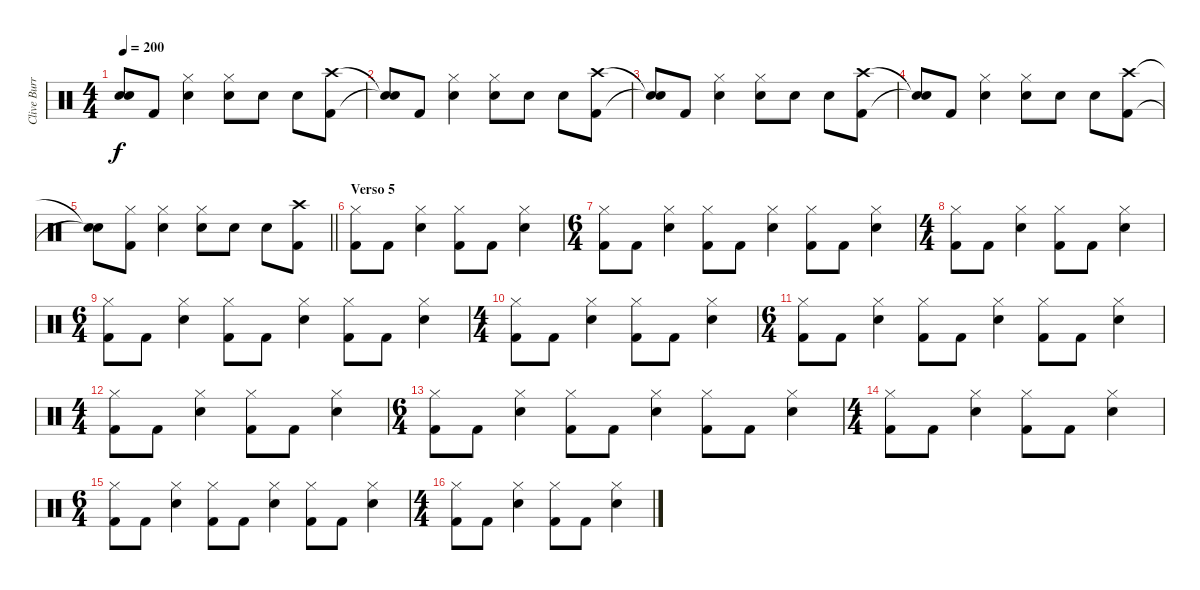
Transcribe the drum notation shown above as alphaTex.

\track ("Clive Burr" "Clive Burr") {instrument percussion}
\staff {score}
\articulation defaults
\ts (4 4)
\tempo 200
\clef neutral
\ks c
("Snare (hit)"{t} "Snare (hit)"{t}).8{dy f} "Kick (hit) 2".8 ("Hi-Hat (closed)" "Snare (hit) 2").4 ("Hi-Hat (closed)" "Snare (hit) 2").8 "Snare (hit) 2".8 "Snare (hit) 2".8 ("Crash high (hit)" "Kick (hit) 2").8 |
("Snare (hit)"{t} "Snare (hit)"{t}).8 "Kick (hit) 2".8 ("Hi-Hat (closed)" "Snare (hit) 2").4 ("Hi-Hat (closed)" "Snare (hit) 2").8 "Snare (hit) 2".8 "Snare (hit) 2".8 ("Crash high (hit)" "Kick (hit) 2").8 |
("Snare (hit)"{t} "Snare (hit)"{t}).8 "Kick (hit) 2".8 ("Hi-Hat (closed)" "Snare (hit) 2").4 ("Hi-Hat (closed)" "Snare (hit) 2").8 "Snare (hit) 2".8 "Snare (hit) 2".8 ("Crash high (hit)" "Kick (hit) 2").8 |
("Snare (hit)"{t} "Snare (hit)"{t}).8 "Kick (hit) 2".8 ("Hi-Hat (closed)" "Snare (hit) 2").4 ("Hi-Hat (closed)" "Snare (hit) 2").8 "Snare (hit) 2".8 "Snare (hit) 2".8 ("Crash high (hit)" "Kick (hit) 2").8 |
\barLineRight lightlight
("Snare (hit)"{t} "Snare (hit)"{t}).8 ("Hi-Hat (closed)" "Kick (hit) 2").8 ("Hi-Hat (closed)" "Snare (hit) 2").4 ("Hi-Hat (closed)" "Snare (hit) 2").8 "Snare (hit) 2".8 "Snare (hit) 2".8 ("Crash high (hit)" "Kick (hit) 2").8 |
\section ("" "Verso 5")
("Hi-Hat (closed)" "Kick (hit) 2").8 "Kick (hit) 2".8 ("Hi-Hat (closed)" "Snare (hit) 2").4 ("Hi-Hat (closed)" "Kick (hit) 2").8 "Kick (hit) 2".8 ("Hi-Hat (closed)" "Snare (hit) 2").4 |
\ts (6 4)
("Hi-Hat (closed)" "Kick (hit) 2").8 "Kick (hit) 2".8 ("Hi-Hat (closed)" "Snare (hit) 2").4 ("Hi-Hat (closed)" "Kick (hit) 2").8 "Kick (hit) 2".8 ("Hi-Hat (closed)" "Snare (hit) 2").4 ("Hi-Hat (closed)" "Kick (hit) 2").8 "Kick (hit) 2".8 ("Hi-Hat (closed)" "Snare (hit) 2").4 |
\ts (4 4)
("Hi-Hat (closed)" "Kick (hit) 2").8 "Kick (hit) 2".8 ("Hi-Hat (closed)" "Snare (hit) 2").4 ("Hi-Hat (closed)" "Kick (hit) 2").8 "Kick (hit) 2".8 ("Hi-Hat (closed)" "Snare (hit) 2").4 |
\ts (6 4)
("Hi-Hat (closed)" "Kick (hit) 2").8 "Kick (hit) 2".8 ("Hi-Hat (closed)" "Snare (hit) 2").4 ("Hi-Hat (closed)" "Kick (hit) 2").8 "Kick (hit) 2".8 ("Hi-Hat (closed)" "Snare (hit) 2").4 ("Hi-Hat (closed)" "Kick (hit) 2").8 "Kick (hit) 2".8 ("Hi-Hat (closed)" "Snare (hit) 2").4 |
\ts (4 4)
("Hi-Hat (closed)" "Kick (hit) 2").8 "Kick (hit) 2".8 ("Hi-Hat (closed)" "Snare (hit) 2").4 ("Hi-Hat (closed)" "Kick (hit) 2").8 "Kick (hit) 2".8 ("Hi-Hat (closed)" "Snare (hit) 2").4 |
\ts (6 4)
("Hi-Hat (closed)" "Kick (hit) 2").8 "Kick (hit) 2".8 ("Hi-Hat (closed)" "Snare (hit) 2").4 ("Hi-Hat (closed)" "Kick (hit) 2").8 "Kick (hit) 2".8 ("Hi-Hat (closed)" "Snare (hit) 2").4 ("Hi-Hat (closed)" "Kick (hit) 2").8 "Kick (hit) 2".8 ("Hi-Hat (closed)" "Snare (hit) 2").4 |
\ts (4 4)
("Hi-Hat (closed)" "Kick (hit) 2").8 "Kick (hit) 2".8 ("Hi-Hat (closed)" "Snare (hit) 2").4 ("Hi-Hat (closed)" "Kick (hit) 2").8 "Kick (hit) 2".8 ("Hi-Hat (closed)" "Snare (hit) 2").4 |
\ts (6 4)
("Hi-Hat (closed)" "Kick (hit) 2").8 "Kick (hit) 2".8 ("Hi-Hat (closed)" "Snare (hit) 2").4 ("Hi-Hat (closed)" "Kick (hit) 2").8 "Kick (hit) 2".8 ("Hi-Hat (closed)" "Snare (hit) 2").4 ("Hi-Hat (closed)" "Kick (hit) 2").8 "Kick (hit) 2".8 ("Hi-Hat (closed)" "Snare (hit) 2").4 |
\ts (4 4)
("Hi-Hat (closed)" "Kick (hit) 2").8 "Kick (hit) 2".8 ("Hi-Hat (closed)" "Snare (hit) 2").4 ("Hi-Hat (closed)" "Kick (hit) 2").8 "Kick (hit) 2".8 ("Hi-Hat (closed)" "Snare (hit) 2").4 |
\ts (6 4)
("Hi-Hat (closed)" "Kick (hit) 2").8 "Kick (hit) 2".8 ("Hi-Hat (closed)" "Snare (hit) 2").4 ("Hi-Hat (closed)" "Kick (hit) 2").8 "Kick (hit) 2".8 ("Hi-Hat (closed)" "Snare (hit) 2").4 ("Hi-Hat (closed)" "Kick (hit) 2").8 "Kick (hit) 2".8 ("Hi-Hat (closed)" "Snare (hit) 2").4 |
\ts (4 4)
("Hi-Hat (closed)" "Kick (hit) 2").8 "Kick (hit) 2".8 ("Hi-Hat (closed)" "Snare (hit) 2").4 ("Hi-Hat (closed)" "Kick (hit) 2").8 "Kick (hit) 2".8 ("Hi-Hat (closed)" "Snare (hit) 2").4
